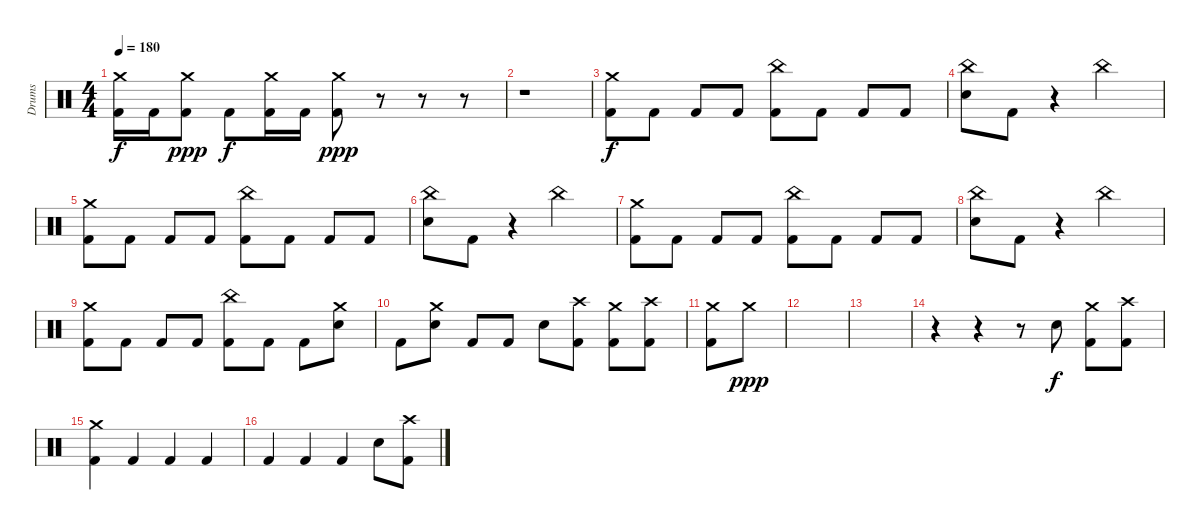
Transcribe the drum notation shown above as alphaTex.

\track ("Drums" "Drums") {instrument percussion}
\staff
\articulation defaults
\ts (4 4)
\tempo 180
\clef neutral
\ks c
("Crash medium (hit)" "Kick (hit) 2").16{dy f} "Kick (hit) 2".16 ("Crash medium (hit)" "Kick (hit) 2").8{dy ppp} "Kick (hit) 2".8{dy f} ("Crash medium (hit)" "Kick (hit) 2").16 "Kick (hit) 2".16 ("Crash medium (hit)" "Kick (hit) 2").8{dy ppp} r.8 r.8 r.8 |
r.1 |
("Crash medium (hit)" "Kick (hit) 2").8{dy f} "Kick (hit) 2".8 "Kick (hit) 2".8 "Kick (hit) 2".8 ("China (hit)" "Kick (hit) 2").8 "Kick (hit) 2".8 "Kick (hit) 2".8 "Kick (hit) 2".8 |
("China (hit)" "Electric Snare (hit)").8 "Kick (hit) 2".8 r.4 "China (hit)".2 |
("Crash medium (hit)" "Kick (hit) 2").8 "Kick (hit) 2".8 "Kick (hit) 2".8 "Kick (hit) 2".8 ("China (hit)" "Kick (hit) 2").8 "Kick (hit) 2".8 "Kick (hit) 2".8 "Kick (hit) 2".8 |
("China (hit)" "Electric Snare (hit)").8 "Kick (hit) 2".8 r.4 "China (hit)".2 |
("Crash medium (hit)" "Kick (hit) 2").8 "Kick (hit) 2".8 "Kick (hit) 2".8 "Kick (hit) 2".8 ("China (hit)" "Kick (hit) 2").8 "Kick (hit) 2".8 "Kick (hit) 2".8 "Kick (hit) 2".8 |
("China (hit)" "Electric Snare (hit)").8 "Kick (hit) 2".8 r.4 "China (hit)".2 |
("Crash medium (hit)" "Kick (hit) 2").8 "Kick (hit) 2".8 "Kick (hit) 2".8 "Kick (hit) 2".8 ("China (hit)" "Kick (hit) 2").8 "Kick (hit) 2".8 "Kick (hit) 2".8 ("Crash medium (hit)" "Electric Snare (hit)").8 |
"Kick (hit) 2".8 ("Crash medium (hit)" "Electric Snare (hit)").8 "Kick (hit) 2".8 "Kick (hit) 2".8 "Electric Snare (hit)".8 ("Crash high (hit)" "Kick (hit) 2").8 ("Crash medium (hit)" "Kick (hit) 2").8 ("Crash high (hit)" "Kick (hit) 2").8 |
("Crash medium (hit)" "Kick (hit) 2").8 "Crash medium (hit)".8{dy ppp} |
|
|
r.4 r.4 r.8 "Electric Snare (hit)".8{dy f} ("Crash medium (hit)" "Kick (hit) 2").8 ("Crash high (hit)" "Kick (hit) 2").8 |
("Crash medium (hit)" "Kick (hit) 2").4 "Kick (hit) 2".4 "Kick (hit) 2".4 "Kick (hit) 2".4 |
"Kick (hit) 2".4 "Kick (hit) 2".4 "Kick (hit) 2".4 "Electric Snare (hit)".8 ("Crash high (hit)" "Kick (hit) 2").8
